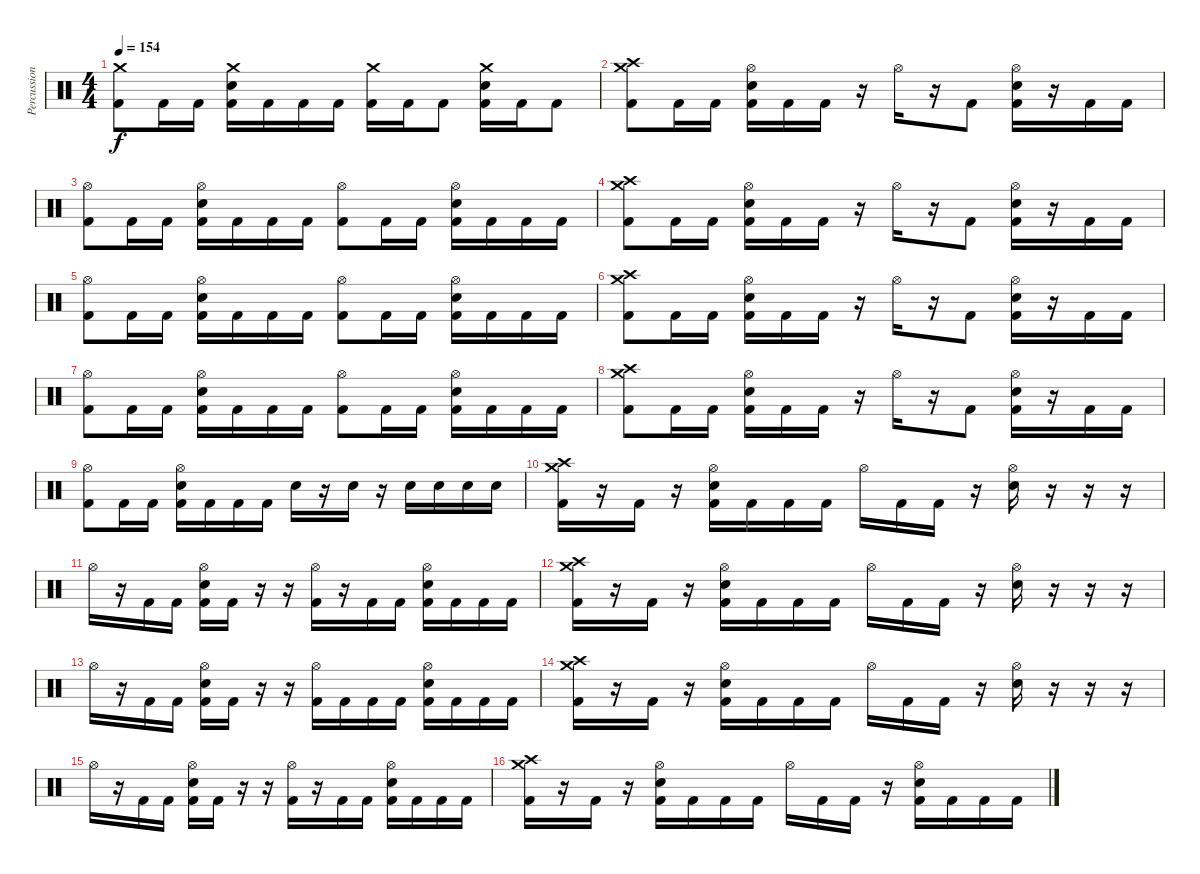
\track ("Percussion" "Percussion") {instrument percussion bank 128}
\staff {score}
\articulation defaults
\ts (4 4)
\tempo 154
\clef neutral
\ks c
("Crash medium (hit)" "Kick (hit) 2").8{dy f} "Kick (hit) 2".16 "Kick (hit) 2".16 ("Crash medium (hit)" "Snare (hit) 2" "Kick (hit) 2").16 "Kick (hit) 2".16 "Kick (hit) 2".16 "Kick (hit) 2".16 ("Crash medium (hit)" "Kick (hit) 2").16 "Kick (hit) 2".16 "Kick (hit) 2".8 ("Crash medium (hit)" "Snare (hit) 2" "Kick (hit) 2").16 "Kick (hit) 2".16 "Kick (hit) 2".8 |
("Crash high (hit)" "Crash medium (hit)" "Kick (hit) 2").8 "Kick (hit) 2".16 "Kick (hit) 2".16 ("Hi-Hat (open)" "Snare (hit) 2" "Kick (hit) 2").16 "Kick (hit) 2".16 "Kick (hit) 2".16 r.16 "Hi-Hat (open)".16 r.16 "Kick (hit) 2".8 ("Hi-Hat (open)" "Snare (hit) 2" "Kick (hit) 2").16 r.16 "Kick (hit) 2".16 "Kick (hit) 2".16 |
("Hi-Hat (open)" "Kick (hit) 2").8 "Kick (hit) 2".16 "Kick (hit) 2".16 ("Hi-Hat (open)" "Snare (hit) 2" "Kick (hit) 2").16 "Kick (hit) 2".16 "Kick (hit) 2".16 "Kick (hit) 2".16 ("Hi-Hat (open)" "Kick (hit) 2").8 "Kick (hit) 2".16 "Kick (hit) 2".16 ("Hi-Hat (open)" "Snare (hit) 2" "Kick (hit) 2").16 "Kick (hit) 2".16 "Kick (hit) 2".16 "Kick (hit) 2".16 |
("Crash high (hit)" "Crash medium (hit)" "Kick (hit) 2").8 "Kick (hit) 2".16 "Kick (hit) 2".16 ("Hi-Hat (open)" "Snare (hit) 2" "Kick (hit) 2").16 "Kick (hit) 2".16 "Kick (hit) 2".16 r.16 "Hi-Hat (open)".16 r.16 "Kick (hit) 2".8 ("Hi-Hat (open)" "Snare (hit) 2" "Kick (hit) 2").16 r.16 "Kick (hit) 2".16 "Kick (hit) 2".16 |
("Hi-Hat (open)" "Kick (hit) 2").8 "Kick (hit) 2".16 "Kick (hit) 2".16 ("Hi-Hat (open)" "Snare (hit) 2" "Kick (hit) 2").16 "Kick (hit) 2".16 "Kick (hit) 2".16 "Kick (hit) 2".16 ("Hi-Hat (open)" "Kick (hit) 2").8 "Kick (hit) 2".16 "Kick (hit) 2".16 ("Hi-Hat (open)" "Snare (hit) 2" "Kick (hit) 2").16 "Kick (hit) 2".16 "Kick (hit) 2".16 "Kick (hit) 2".16 |
("Crash high (hit)" "Crash medium (hit)" "Kick (hit) 2").8 "Kick (hit) 2".16 "Kick (hit) 2".16 ("Hi-Hat (open)" "Snare (hit) 2" "Kick (hit) 2").16 "Kick (hit) 2".16 "Kick (hit) 2".16 r.16 "Hi-Hat (open)".16 r.16 "Kick (hit) 2".8 ("Hi-Hat (open)" "Snare (hit) 2" "Kick (hit) 2").16 r.16 "Kick (hit) 2".16 "Kick (hit) 2".16 |
("Hi-Hat (open)" "Kick (hit) 2").8 "Kick (hit) 2".16 "Kick (hit) 2".16 ("Hi-Hat (open)" "Snare (hit) 2" "Kick (hit) 2").16 "Kick (hit) 2".16 "Kick (hit) 2".16 "Kick (hit) 2".16 ("Hi-Hat (open)" "Kick (hit) 2").8 "Kick (hit) 2".16 "Kick (hit) 2".16 ("Hi-Hat (open)" "Snare (hit) 2" "Kick (hit) 2").16 "Kick (hit) 2".16 "Kick (hit) 2".16 "Kick (hit) 2".16 |
("Crash high (hit)" "Crash medium (hit)" "Kick (hit) 2").8 "Kick (hit) 2".16 "Kick (hit) 2".16 ("Hi-Hat (open)" "Snare (hit) 2" "Kick (hit) 2").16 "Kick (hit) 2".16 "Kick (hit) 2".16 r.16 "Hi-Hat (open)".16 r.16 "Kick (hit) 2".8 ("Hi-Hat (open)" "Snare (hit) 2" "Kick (hit) 2").16 r.16 "Kick (hit) 2".16 "Kick (hit) 2".16 |
("Hi-Hat (open)" "Kick (hit) 2").8 "Kick (hit) 2".16 "Kick (hit) 2".16 ("Hi-Hat (open)" "Snare (hit) 2" "Kick (hit) 2").16 "Kick (hit) 2".16 "Kick (hit) 2".16 "Kick (hit) 2".16 "Snare (hit) 2".16 r.16 "Snare (hit) 2".16 r.16 "Snare (hit) 2".16 "Snare (hit) 2".16 "Snare (hit) 2".16 "Snare (hit) 2".16 |
("Crash high (hit)" "Crash medium (hit)" "Kick (hit) 2").16 r.16 "Kick (hit) 2".16 r.16 ("Hi-Hat (open)" "Snare (hit) 2" "Kick (hit) 2").16 "Kick (hit) 2".16 "Kick (hit) 2".16 "Kick (hit) 2".16 "Hi-Hat (open)".16 "Kick (hit) 2".16 "Kick (hit) 2".16 r.16 ("Hi-Hat (open)" "Snare (hit) 2").16 r.16 r.16 r.16 |
"Hi-Hat (open)".16 r.16 "Kick (hit) 2".16 "Kick (hit) 2".16 ("Hi-Hat (open)" "Snare (hit) 2" "Kick (hit) 2").16 "Kick (hit) 2".16 r.16 r.16 ("Hi-Hat (open)" "Kick (hit) 2").16 r.16 "Kick (hit) 2".16 "Kick (hit) 2".16 ("Hi-Hat (open)" "Snare (hit) 2" "Kick (hit) 2").16 "Kick (hit) 2".16 "Kick (hit) 2".16 "Kick (hit) 2".16 |
("Crash high (hit)" "Crash medium (hit)" "Kick (hit) 2").16 r.16 "Kick (hit) 2".16 r.16 ("Hi-Hat (open)" "Snare (hit) 2" "Kick (hit) 2").16 "Kick (hit) 2".16 "Kick (hit) 2".16 "Kick (hit) 2".16 "Hi-Hat (open)".16 "Kick (hit) 2".16 "Kick (hit) 2".16 r.16 ("Hi-Hat (open)" "Snare (hit) 2").16 r.16 r.16 r.16 |
"Hi-Hat (open)".16 r.16 "Kick (hit) 2".16 "Kick (hit) 2".16 ("Hi-Hat (open)" "Snare (hit) 2" "Kick (hit) 2").16 "Kick (hit) 2".16 r.16 r.16 ("Hi-Hat (open)" "Kick (hit) 2").16 "Kick (hit) 2".16 "Kick (hit) 2".16 "Kick (hit) 2".16 ("Hi-Hat (open)" "Snare (hit) 2" "Kick (hit) 2").16 "Kick (hit) 2".16 "Kick (hit) 2".16 "Kick (hit) 2".16 |
("Crash high (hit)" "Crash medium (hit)" "Kick (hit) 2").16 r.16 "Kick (hit) 2".16 r.16 ("Hi-Hat (open)" "Snare (hit) 2" "Kick (hit) 2").16 "Kick (hit) 2".16 "Kick (hit) 2".16 "Kick (hit) 2".16 "Hi-Hat (open)".16 "Kick (hit) 2".16 "Kick (hit) 2".16 r.16 ("Hi-Hat (open)" "Snare (hit) 2").16 r.16 r.16 r.16 |
"Hi-Hat (open)".16 r.16 "Kick (hit) 2".16 "Kick (hit) 2".16 ("Hi-Hat (open)" "Snare (hit) 2" "Kick (hit) 2").16 "Kick (hit) 2".16 r.16 r.16 ("Hi-Hat (open)" "Kick (hit) 2").16 r.16 "Kick (hit) 2".16 "Kick (hit) 2".16 ("Hi-Hat (open)" "Snare (hit) 2" "Kick (hit) 2").16 "Kick (hit) 2".16 "Kick (hit) 2".16 "Kick (hit) 2".16 |
("Crash high (hit)" "Crash medium (hit)" "Kick (hit) 2").16 r.16 "Kick (hit) 2".16 r.16 ("Hi-Hat (open)" "Snare (hit) 2" "Kick (hit) 2").16 "Kick (hit) 2".16 "Kick (hit) 2".16 "Kick (hit) 2".16 "Hi-Hat (open)".16 "Kick (hit) 2".16 "Kick (hit) 2".16 r.16 ("Hi-Hat (open)" "Snare (hit) 2" "Kick (hit) 2").16 "Kick (hit) 2".16 "Kick (hit) 2".16 "Kick (hit) 2".16
